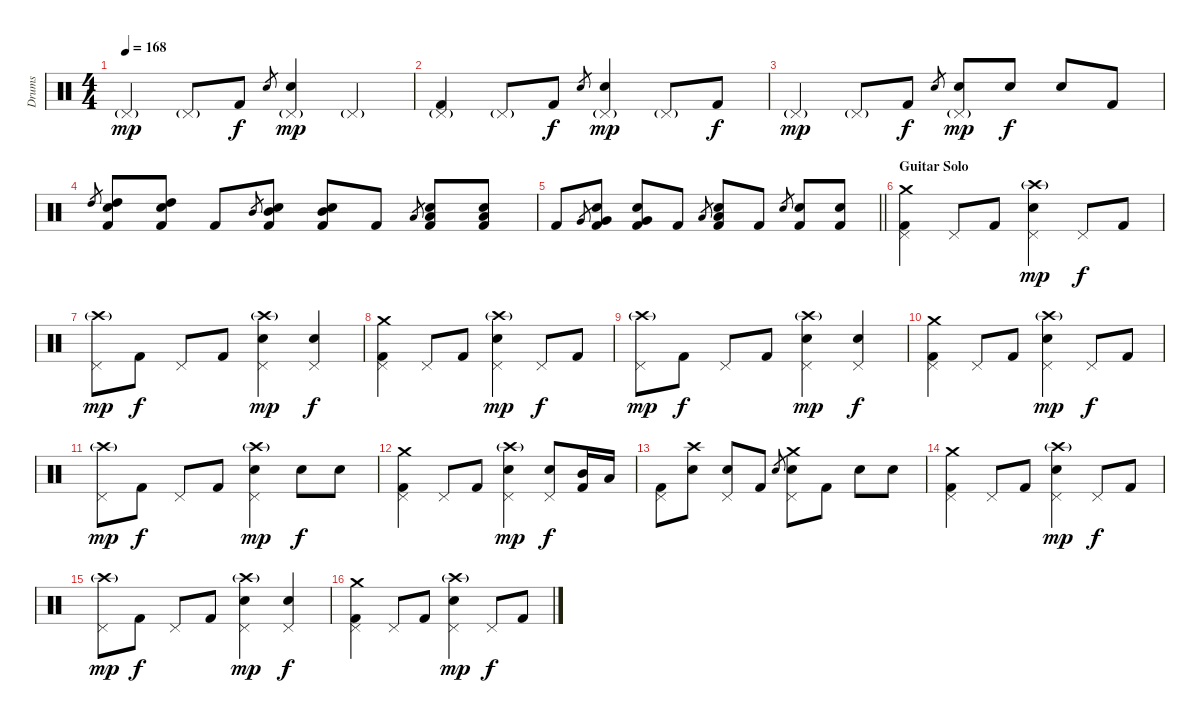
\track ("Drums" "Drums") {instrument percussion}
\staff {score}
\articulation defaults
\ts (4 4)
\tempo 168
\clef neutral
\ks c "Pedal Hi-Hat (hit)"{g}.4{dy mp} "Pedal Hi-Hat (hit)"{g}.8 "Kick (hit) 2".8{dy f} "Snare (hit) 2".8{gr}
("Pedal Hi-Hat (hit)"{g} "Snare (hit) 2").4{dy mp} "Pedal Hi-Hat (hit)"{g}.4 |
("Pedal Hi-Hat (hit)"{g} "Kick (hit) 2").4 "Pedal Hi-Hat (hit)"{g}.8 "Kick (hit) 2".8{dy f} "Snare (hit) 2".8{gr} ("Pedal Hi-Hat (hit)"{g} "Snare (hit) 2").4{dy mp} "Pedal Hi-Hat (hit)"{g}.8 "Kick (hit) 2".8{dy f} |
"Pedal Hi-Hat (hit)"{g}.4{dy mp} "Pedal Hi-Hat (hit)"{g}.8 "Kick (hit) 2".8{dy f} "Snare (hit) 2".8{gr} ("Pedal Hi-Hat (hit)"{g} "Snare (hit) 2").8{dy mp} "Snare (hit) 2".8{dy f} "Snare (hit) 2".8 "Kick (hit) 2".8 |
"High Tom (hit)".8{gr} ("High Tom (hit)" "Snare (hit) 2" "Kick (hit) 2").8 ("High Tom (hit)" "Snare (hit) 2" "Kick (hit) 2").8 "Kick (hit) 2".8 "Mid Tom (hit)".8{gr} ("Mid Tom (hit)" "Snare (hit) 2" "Kick (hit) 2").8 ("Mid Tom (hit)" "Snare (hit) 2" "Kick (hit) 2").8 "Kick (hit) 2".8 "Low Tom (hit)".8{gr} ("Low Tom (hit)" "Snare (hit) 2" "Kick (hit) 2").8 ("Low Tom (hit)" "Snare (hit) 2" "Kick (hit) 2").8 |
\barLineRight lightlight "Kick (hit) 2".8 "Very Low Tom (hit)".8{gr}
("Very Low Tom (hit)" "Snare (hit) 2" "Kick (hit) 2").8 ("Very Low Tom (hit)" "Snare (hit) 2" "Kick (hit) 2").8 "Kick (hit) 2".8 "Low Floor Tom (hit)".8{gr} ("Low Floor Tom (hit)" "Snare (hit) 2" "Kick (hit) 2").8 "Kick (hit) 2".8 "Snare (hit) 2".8{gr} ("Snare (hit) 2" "Kick (hit) 2").8 ("Snare (hit) 2" "Kick (hit) 2").8 |
\section ("" "Guitar Solo")
("Crash medium (hit)" "Pedal Hi-Hat (hit)" "Kick (hit) 2").4 "Pedal Hi-Hat (hit)".8 "Kick (hit) 2".8 ("Crash high (hit)"{g} "Pedal Hi-Hat (hit)" "Snare (hit) 2").4{dy mp} "Pedal Hi-Hat (hit)".8{dy f} "Kick (hit) 2".8 |
("Crash high (hit)"{g} "Pedal Hi-Hat (hit)").8{dy mp} "Kick (hit) 2".8{dy f} "Pedal Hi-Hat (hit)".8 "Kick (hit) 2".8 ("Crash high (hit)"{g} "Pedal Hi-Hat (hit)" "Snare (hit) 2").4{dy mp} ("Pedal Hi-Hat (hit)" "Snare (hit) 2").4{dy f} |
("Crash medium (hit)" "Pedal Hi-Hat (hit)" "Kick (hit) 2").4 "Pedal Hi-Hat (hit)".8 "Kick (hit) 2".8 ("Crash high (hit)"{g} "Pedal Hi-Hat (hit)" "Snare (hit) 2").4{dy mp} "Pedal Hi-Hat (hit)".8{dy f} "Kick (hit) 2".8 |
("Crash high (hit)"{g} "Pedal Hi-Hat (hit)").8{dy mp} "Kick (hit) 2".8{dy f} "Pedal Hi-Hat (hit)".8 "Kick (hit) 2".8 ("Crash high (hit)"{g} "Pedal Hi-Hat (hit)" "Snare (hit) 2").4{dy mp} ("Pedal Hi-Hat (hit)" "Snare (hit) 2").4{dy f} |
("Crash medium (hit)" "Pedal Hi-Hat (hit)" "Kick (hit) 2").4 "Pedal Hi-Hat (hit)".8 "Kick (hit) 2".8 ("Crash high (hit)"{g} "Pedal Hi-Hat (hit)" "Snare (hit) 2").4{dy mp} "Pedal Hi-Hat (hit)".8{dy f} "Kick (hit) 2".8 |
("Crash high (hit)"{g} "Pedal Hi-Hat (hit)").8{dy mp} "Kick (hit) 2".8{dy f} "Pedal Hi-Hat (hit)".8 "Kick (hit) 2".8 ("Crash high (hit)"{g} "Pedal Hi-Hat (hit)" "Snare (hit) 2").4{dy mp} "Snare (hit) 2".8{dy f} "Snare (hit) 2".8 |
("Crash medium (hit)" "Pedal Hi-Hat (hit)" "Kick (hit) 2").4 "Pedal Hi-Hat (hit)".8 "Kick (hit) 2".8 ("Crash high (hit)"{g} "Pedal Hi-Hat (hit)" "Snare (hit) 2").4{dy mp} ("Pedal Hi-Hat (hit)" "Snare (hit) 2").8{dy f} ("Mid Tom (hit)" "Kick (hit) 2").16 "Low Tom (hit)".16 |
("Pedal Hi-Hat (hit)" "Kick (hit) 2").8 ("Crash high (hit)" "Snare (hit) 2").8 ("Pedal Hi-Hat (hit)" "Snare (hit) 2").8 "Kick (hit) 2".8 "Snare (hit) 2".8{gr} ("Crash medium (hit)" "Pedal Hi-Hat (hit)" "Snare (hit) 2").8 "Kick (hit) 2".8 "Snare (hit) 2".8 "Snare (hit) 2".8 |
("Crash medium (hit)" "Pedal Hi-Hat (hit)" "Kick (hit) 2").4 "Pedal Hi-Hat (hit)".8 "Kick (hit) 2".8 ("Crash high (hit)"{g} "Pedal Hi-Hat (hit)" "Snare (hit) 2").4{dy mp} "Pedal Hi-Hat (hit)".8{dy f} "Kick (hit) 2".8 |
("Crash high (hit)"{g} "Pedal Hi-Hat (hit)").8{dy mp} "Kick (hit) 2".8{dy f} "Pedal Hi-Hat (hit)".8 "Kick (hit) 2".8 ("Crash high (hit)"{g} "Pedal Hi-Hat (hit)" "Snare (hit) 2").4{dy mp} ("Pedal Hi-Hat (hit)" "Snare (hit) 2").4{dy f} |
("Crash medium (hit)" "Pedal Hi-Hat (hit)" "Kick (hit) 2").4 "Pedal Hi-Hat (hit)".8 "Kick (hit) 2".8 ("Crash high (hit)"{g} "Pedal Hi-Hat (hit)" "Snare (hit) 2").4{dy mp} "Pedal Hi-Hat (hit)".8{dy f} "Kick (hit) 2".8
